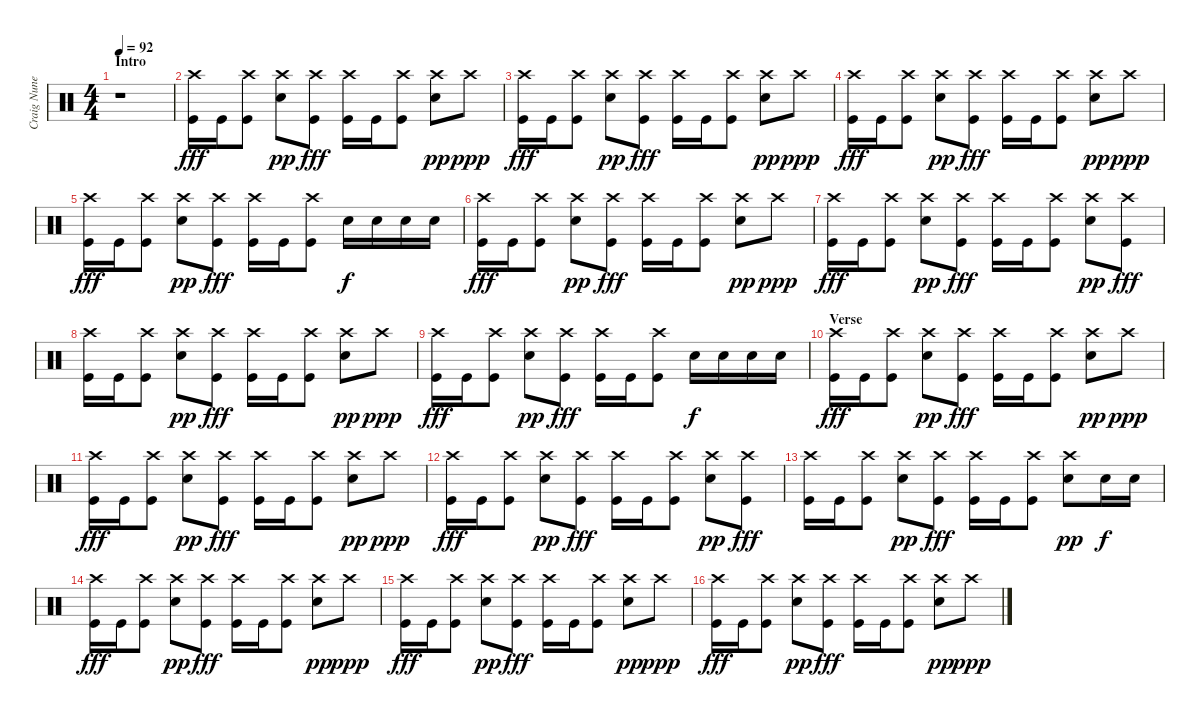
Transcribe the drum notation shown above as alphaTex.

\track ("Craig Nunenmacher" "Craig Nune") {instrument percussion}
\staff {score}
\articulation defaults
\ts (4 4)
\section ("" "Intro")
\tempo 92
\clef neutral
\ks c
r.1{dy fff} |
("Crash high (hit)" "Kick (hit)").16 "Kick (hit)".16 ("Crash high (hit)" "Kick (hit)").8 ("Crash high (hit)" "Snare (hit) 2").8{dy pp} ("Crash high (hit)" "Kick (hit)").8{dy fff} ("Crash high (hit)" "Kick (hit)").16 "Kick (hit)".16 ("Crash high (hit)" "Kick (hit)").8 ("Crash high (hit)" "Snare (hit) 2").8{dy pp} "Crash high (hit)".8{dy ppp} |
("Crash high (hit)" "Kick (hit)").16{dy fff} "Kick (hit)".16 ("Crash high (hit)" "Kick (hit)").8 ("Crash high (hit)" "Snare (hit) 2").8{dy pp} ("Crash high (hit)" "Kick (hit)").8{dy fff} ("Crash high (hit)" "Kick (hit)").16 "Kick (hit)".16 ("Crash high (hit)" "Kick (hit)").8 ("Crash high (hit)" "Snare (hit) 2").8{dy pp} "Crash high (hit)".8{dy ppp} |
("Crash high (hit)" "Kick (hit)").16{dy fff} "Kick (hit)".16 ("Crash high (hit)" "Kick (hit)").8 ("Crash high (hit)" "Snare (hit) 2").8{dy pp} ("Crash high (hit)" "Kick (hit)").8{dy fff} ("Crash high (hit)" "Kick (hit)").16 "Kick (hit)".16 ("Crash high (hit)" "Kick (hit)").8 ("Crash high (hit)" "Snare (hit) 2").8{dy pp} "Crash high (hit)".8{dy ppp} |
("Crash high (hit)" "Kick (hit)").16{dy fff} "Kick (hit)".16 ("Crash high (hit)" "Kick (hit)").8 ("Crash high (hit)" "Snare (hit) 2").8{dy pp} ("Crash high (hit)" "Kick (hit)").8{dy fff} ("Crash high (hit)" "Kick (hit)").16 "Kick (hit)".16 ("Crash high (hit)" "Kick (hit)").8 "Snare (hit) 2".16{dy f} "Snare (hit) 2".16 "Snare (hit) 2".16 "Snare (hit) 2".16 |
("Crash high (hit)" "Kick (hit)").16{dy fff} "Kick (hit)".16 ("Crash high (hit)" "Kick (hit)").8 ("Crash high (hit)" "Snare (hit) 2").8{dy pp} ("Crash high (hit)" "Kick (hit)").8{dy fff} ("Crash high (hit)" "Kick (hit)").16 "Kick (hit)".16 ("Crash high (hit)" "Kick (hit)").8 ("Crash high (hit)" "Snare (hit) 2").8{dy pp} "Crash high (hit)".8{dy ppp} |
("Crash high (hit)" "Kick (hit)").16{dy fff} "Kick (hit)".16 ("Crash high (hit)" "Kick (hit)").8 ("Crash high (hit)" "Snare (hit) 2").8{dy pp} ("Crash high (hit)" "Kick (hit)").8{dy fff} ("Crash high (hit)" "Kick (hit)").16 "Kick (hit)".16 ("Crash high (hit)" "Kick (hit)").8 ("Crash high (hit)" "Snare (hit) 2").8{dy pp} ("Crash high (hit)" "Kick (hit)").8{dy fff} |
("Crash high (hit)" "Kick (hit)").16 "Kick (hit)".16 ("Crash high (hit)" "Kick (hit)").8 ("Crash high (hit)" "Snare (hit) 2").8{dy pp} ("Crash high (hit)" "Kick (hit)").8{dy fff} ("Crash high (hit)" "Kick (hit)").16 "Kick (hit)".16 ("Crash high (hit)" "Kick (hit)").8 ("Crash high (hit)" "Snare (hit) 2").8{dy pp} "Crash high (hit)".8{dy ppp} |
("Crash high (hit)" "Kick (hit)").16{dy fff} "Kick (hit)".16 ("Crash high (hit)" "Kick (hit)").8 ("Crash high (hit)" "Snare (hit) 2").8{dy pp} ("Crash high (hit)" "Kick (hit)").8{dy fff} ("Crash high (hit)" "Kick (hit)").16 "Kick (hit)".16 ("Crash high (hit)" "Kick (hit)").8 "Snare (hit) 2".16{dy f} "Snare (hit) 2".16 "Snare (hit) 2".16 "Snare (hit) 2".16 |
\section ("" "Verse")
("Crash high (hit)" "Kick (hit)").16{dy fff} "Kick (hit)".16 ("Crash high (hit)" "Kick (hit)").8 ("Crash high (hit)" "Snare (hit) 2").8{dy pp} ("Crash high (hit)" "Kick (hit)").8{dy fff} ("Crash high (hit)" "Kick (hit)").16 "Kick (hit)".16 ("Crash high (hit)" "Kick (hit)").8 ("Crash high (hit)" "Snare (hit) 2").8{dy pp} "Crash high (hit)".8{dy ppp} |
("Crash high (hit)" "Kick (hit)").16{dy fff} "Kick (hit)".16 ("Crash high (hit)" "Kick (hit)").8 ("Crash high (hit)" "Snare (hit) 2").8{dy pp} ("Crash high (hit)" "Kick (hit)").8{dy fff} ("Crash high (hit)" "Kick (hit)").16 "Kick (hit)".16 ("Crash high (hit)" "Kick (hit)").8 ("Crash high (hit)" "Snare (hit) 2").8{dy pp} "Crash high (hit)".8{dy ppp} |
("Crash high (hit)" "Kick (hit)").16{dy fff} "Kick (hit)".16 ("Crash high (hit)" "Kick (hit)").8 ("Crash high (hit)" "Snare (hit) 2").8{dy pp} ("Crash high (hit)" "Kick (hit)").8{dy fff} ("Crash high (hit)" "Kick (hit)").16 "Kick (hit)".16 ("Crash high (hit)" "Kick (hit)").8 ("Crash high (hit)" "Snare (hit) 2").8{dy pp} ("Crash high (hit)" "Kick (hit)").8{dy fff} |
("Crash high (hit)" "Kick (hit)").16 "Kick (hit)".16 ("Crash high (hit)" "Kick (hit)").8 ("Crash high (hit)" "Snare (hit) 2").8{dy pp} ("Crash high (hit)" "Kick (hit)").8{dy fff} ("Crash high (hit)" "Kick (hit)").16 "Kick (hit)".16 ("Crash high (hit)" "Kick (hit)").8 ("Crash high (hit)" "Snare (hit) 2").8{dy pp} "Snare (hit) 2".16{dy f} "Snare (hit) 2".16 |
("Crash high (hit)" "Kick (hit)").16{dy fff} "Kick (hit)".16 ("Crash high (hit)" "Kick (hit)").8 ("Crash high (hit)" "Snare (hit) 2").8{dy pp} ("Crash high (hit)" "Kick (hit)").8{dy fff} ("Crash high (hit)" "Kick (hit)").16 "Kick (hit)".16 ("Crash high (hit)" "Kick (hit)").8 ("Crash high (hit)" "Snare (hit) 2").8{dy pp} "Crash high (hit)".8{dy ppp} |
("Crash high (hit)" "Kick (hit)").16{dy fff} "Kick (hit)".16 ("Crash high (hit)" "Kick (hit)").8 ("Crash high (hit)" "Snare (hit) 2").8{dy pp} ("Crash high (hit)" "Kick (hit)").8{dy fff} ("Crash high (hit)" "Kick (hit)").16 "Kick (hit)".16 ("Crash high (hit)" "Kick (hit)").8 ("Crash high (hit)" "Snare (hit) 2").8{dy pp} "Crash high (hit)".8{dy ppp} |
("Crash high (hit)" "Kick (hit)").16{dy fff} "Kick (hit)".16 ("Crash high (hit)" "Kick (hit)").8 ("Crash high (hit)" "Snare (hit) 2").8{dy pp} ("Crash high (hit)" "Kick (hit)").8{dy fff} ("Crash high (hit)" "Kick (hit)").16 "Kick (hit)".16 ("Crash high (hit)" "Kick (hit)").8 ("Crash high (hit)" "Snare (hit) 2").8{dy pp} "Crash high (hit)".8{dy ppp}
